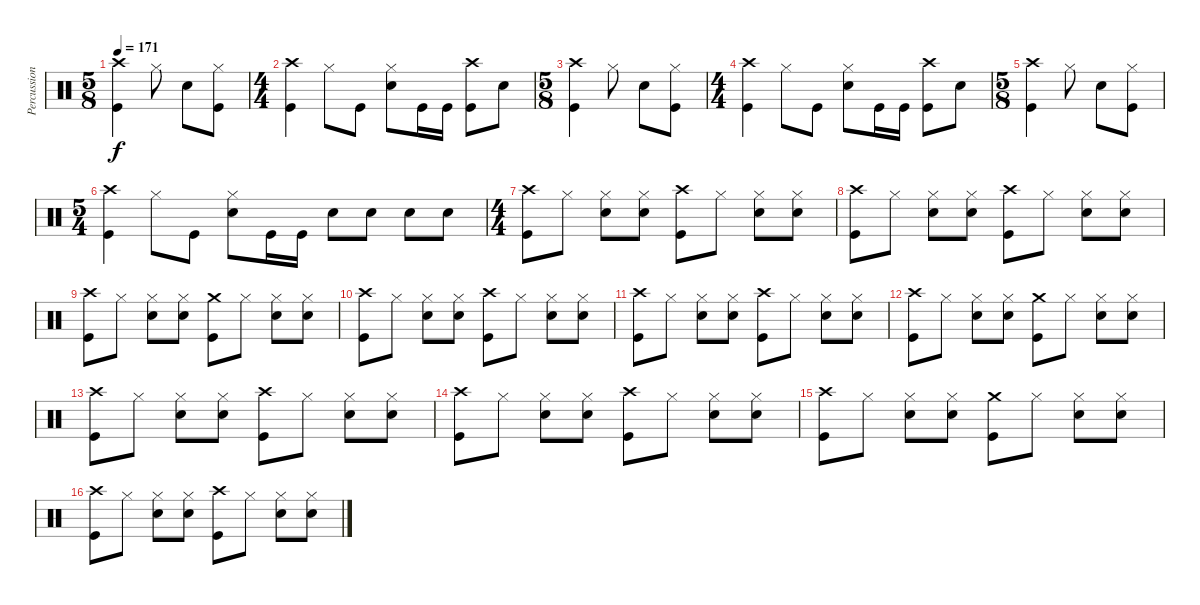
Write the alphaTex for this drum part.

\track ("Percussions" "Percussion") {instrument percussion}
\staff {score}
\articulation defaults
\ts (5 8)
\tempo 171
\clef neutral
\ks c
("Crash high (hit)" "Kick (hit)").4{dy f} "Hi-Hat (closed)".8 "Snare (hit) 2".8 ("Hi-Hat (closed)" "Kick (hit)").8 |
\ts (4 4)
("Crash high (hit)" "Kick (hit)").4 "Hi-Hat (closed)".8 "Kick (hit)".8 ("Hi-Hat (closed)" "Snare (hit) 2").8 "Kick (hit)".16 "Kick (hit)".16 ("Crash high (hit)" "Kick (hit)").8 "Snare (hit) 2".8 |
\ts (5 8)
("Crash high (hit)" "Kick (hit)").4 "Hi-Hat (closed)".8 "Snare (hit) 2".8 ("Hi-Hat (closed)" "Kick (hit)").8 |
\ts (4 4)
("Crash high (hit)" "Kick (hit)").4 "Hi-Hat (closed)".8 "Kick (hit)".8 ("Hi-Hat (closed)" "Snare (hit) 2").8 "Kick (hit)".16 "Kick (hit)".16 ("Crash high (hit)" "Kick (hit)").8 "Snare (hit) 2".8 |
\ts (5 8)
("Crash high (hit)" "Kick (hit)").4 "Hi-Hat (closed)".8 "Snare (hit) 2".8 ("Hi-Hat (closed)" "Kick (hit)").8 |
\ts (5 4)
("Crash high (hit)" "Kick (hit)").4 "Hi-Hat (closed)".8 "Kick (hit)".8 ("Hi-Hat (closed)" "Snare (hit) 2").8 "Kick (hit)".16 "Kick (hit)".16 "Snare (hit) 2".8 "Snare (hit) 2".8 "Snare (hit) 2".8 "Snare (hit) 2".8 |
\ts (4 4)
("Crash high (hit)" "Kick (hit)").8 "Hi-Hat (closed)".8 ("Hi-Hat (closed)" "Snare (hit) 2").8 ("Hi-Hat (closed)" "Snare (hit) 2").8 ("Crash high (hit)" "Kick (hit)").8 "Hi-Hat (closed)".8 ("Hi-Hat (closed)" "Snare (hit) 2").8 ("Hi-Hat (closed)" "Snare (hit) 2").8 |
("Crash high (hit)" "Kick (hit)").8 "Hi-Hat (closed)".8 ("Hi-Hat (closed)" "Snare (hit) 2").8 ("Hi-Hat (closed)" "Snare (hit) 2").8 ("Crash high (hit)" "Kick (hit)").8 "Hi-Hat (closed)".8 ("Hi-Hat (closed)" "Snare (hit) 2").8 ("Hi-Hat (closed)" "Snare (hit) 2").8 |
("Crash high (hit)" "Kick (hit)").8 "Hi-Hat (closed)".8 ("Hi-Hat (closed)" "Snare (hit) 2").8 ("Hi-Hat (closed)" "Snare (hit) 2").8 ("Crash medium (hit)" "Kick (hit)").8 "Hi-Hat (closed)".8 ("Hi-Hat (closed)" "Snare (hit) 2").8 ("Hi-Hat (closed)" "Snare (hit) 2").8 |
("Crash high (hit)" "Kick (hit)").8 "Hi-Hat (closed)".8 ("Hi-Hat (closed)" "Snare (hit) 2").8 ("Hi-Hat (closed)" "Snare (hit) 2").8 ("Crash high (hit)" "Kick (hit)").8 "Hi-Hat (closed)".8 ("Hi-Hat (closed)" "Snare (hit) 2").8 ("Hi-Hat (closed)" "Snare (hit) 2").8 |
("Crash high (hit)" "Kick (hit)").8 "Hi-Hat (closed)".8 ("Hi-Hat (closed)" "Snare (hit) 2").8 ("Hi-Hat (closed)" "Snare (hit) 2").8 ("Crash high (hit)" "Kick (hit)").8 "Hi-Hat (closed)".8 ("Hi-Hat (closed)" "Snare (hit) 2").8 ("Hi-Hat (closed)" "Snare (hit) 2").8 |
("Crash high (hit)" "Kick (hit)").8 "Hi-Hat (closed)".8 ("Hi-Hat (closed)" "Snare (hit) 2").8 ("Hi-Hat (closed)" "Snare (hit) 2").8 ("Crash medium (hit)" "Kick (hit)").8 "Hi-Hat (closed)".8 ("Hi-Hat (closed)" "Snare (hit) 2").8 ("Hi-Hat (closed)" "Snare (hit) 2").8 |
("Crash high (hit)" "Kick (hit)").8 "Hi-Hat (closed)".8 ("Hi-Hat (closed)" "Snare (hit) 2").8 ("Hi-Hat (closed)" "Snare (hit) 2").8 ("Crash high (hit)" "Kick (hit)").8 "Hi-Hat (closed)".8 ("Hi-Hat (closed)" "Snare (hit) 2").8 ("Hi-Hat (closed)" "Snare (hit) 2").8 |
("Crash high (hit)" "Kick (hit)").8 "Hi-Hat (closed)".8 ("Hi-Hat (closed)" "Snare (hit) 2").8 ("Hi-Hat (closed)" "Snare (hit) 2").8 ("Crash high (hit)" "Kick (hit)").8 "Hi-Hat (closed)".8 ("Hi-Hat (closed)" "Snare (hit) 2").8 ("Hi-Hat (closed)" "Snare (hit) 2").8 |
("Crash high (hit)" "Kick (hit)").8 "Hi-Hat (closed)".8 ("Hi-Hat (closed)" "Snare (hit) 2").8 ("Hi-Hat (closed)" "Snare (hit) 2").8 ("Crash medium (hit)" "Kick (hit)").8 "Hi-Hat (closed)".8 ("Hi-Hat (closed)" "Snare (hit) 2").8 ("Hi-Hat (closed)" "Snare (hit) 2").8 |
("Crash high (hit)" "Kick (hit)").8 "Hi-Hat (closed)".8 ("Hi-Hat (closed)" "Snare (hit) 2").8 ("Hi-Hat (closed)" "Snare (hit) 2").8 ("Crash high (hit)" "Kick (hit)").8 "Hi-Hat (closed)".8 ("Hi-Hat (closed)" "Snare (hit) 2").8 ("Hi-Hat (closed)" "Snare (hit) 2").8
